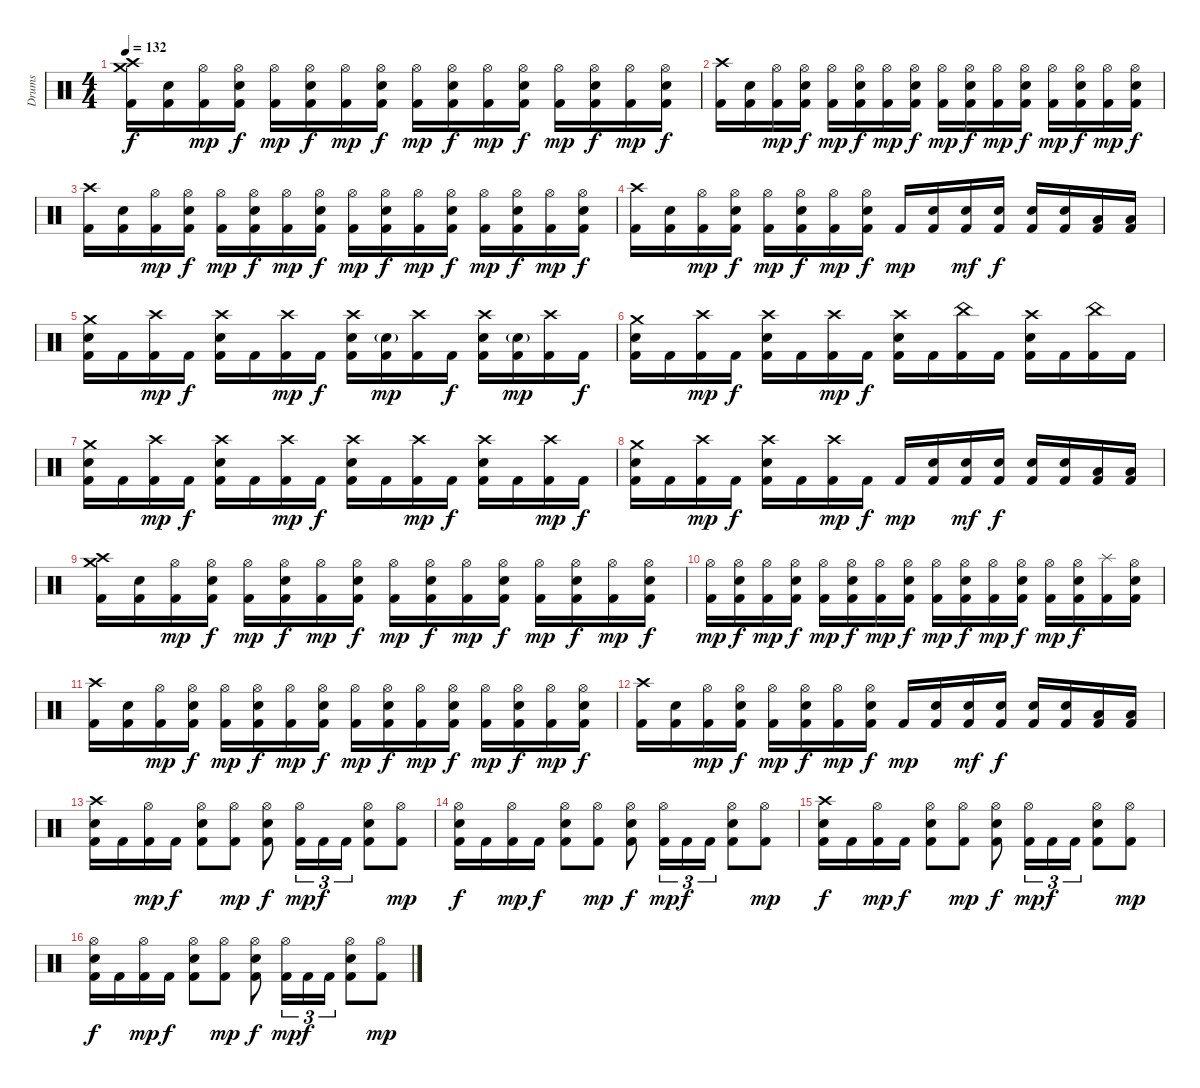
\track ("Drums" "Drums") {instrument percussion}
\staff {score}
\articulation defaults
\ts (4 4)
\tempo 132
\clef neutral
\ks c
("Crash high (hit)" "Crash medium (hit)" "Kick (hit) 2").16{dy f} ("Electric Snare (hit)" "Kick (hit) 2").16 ("Hi-Hat (open)" "Kick (hit) 2").16{dy mp} ("Hi-Hat (open)" "Electric Snare (hit)" "Kick (hit) 2").16{dy f} ("Hi-Hat (open)" "Kick (hit) 2").16{dy mp} ("Hi-Hat (open)" "Electric Snare (hit)" "Kick (hit) 2").16{dy f} ("Hi-Hat (open)" "Kick (hit) 2").16{dy mp} ("Hi-Hat (open)" "Electric Snare (hit)" "Kick (hit) 2").16{dy f} ("Hi-Hat (open)" "Kick (hit) 2").16{dy mp} ("Hi-Hat (open)" "Electric Snare (hit)" "Kick (hit) 2").16{dy f} ("Hi-Hat (open)" "Kick (hit) 2").16{dy mp} ("Hi-Hat (open)" "Electric Snare (hit)" "Kick (hit) 2").16{dy f} ("Hi-Hat (open)" "Kick (hit) 2").16{dy mp} ("Hi-Hat (open)" "Electric Snare (hit)" "Kick (hit) 2").16{dy f} ("Hi-Hat (open)" "Kick (hit) 2").16{dy mp} ("Hi-Hat (open)" "Electric Snare (hit)" "Kick (hit) 2").16{dy f} |
("Crash high (hit)" "Kick (hit) 2").16 ("Electric Snare (hit)" "Kick (hit) 2").16 ("Hi-Hat (open)" "Kick (hit) 2").16{dy mp} ("Hi-Hat (open)" "Electric Snare (hit)" "Kick (hit) 2").16{dy f} ("Hi-Hat (open)" "Kick (hit) 2").16{dy mp} ("Hi-Hat (open)" "Electric Snare (hit)" "Kick (hit) 2").16{dy f} ("Hi-Hat (open)" "Kick (hit) 2").16{dy mp} ("Hi-Hat (open)" "Electric Snare (hit)" "Kick (hit) 2").16{dy f} ("Hi-Hat (open)" "Kick (hit) 2").16{dy mp} ("Hi-Hat (open)" "Electric Snare (hit)" "Kick (hit) 2").16{dy f} ("Hi-Hat (open)" "Kick (hit) 2").16{dy mp} ("Hi-Hat (open)" "Electric Snare (hit)" "Kick (hit) 2").16{dy f} ("Hi-Hat (open)" "Kick (hit) 2").16{dy mp} ("Hi-Hat (open)" "Electric Snare (hit)" "Kick (hit) 2").16{dy f} ("Hi-Hat (open)" "Kick (hit) 2").16{dy mp} ("Hi-Hat (open)" "Electric Snare (hit)" "Kick (hit) 2").16{dy f} |
("Crash high (hit)" "Kick (hit) 2").16 ("Electric Snare (hit)" "Kick (hit) 2").16 ("Hi-Hat (open)" "Kick (hit) 2").16{dy mp} ("Hi-Hat (open)" "Electric Snare (hit)" "Kick (hit) 2").16{dy f} ("Hi-Hat (open)" "Kick (hit) 2").16{dy mp} ("Hi-Hat (open)" "Electric Snare (hit)" "Kick (hit) 2").16{dy f} ("Hi-Hat (open)" "Kick (hit) 2").16{dy mp} ("Hi-Hat (open)" "Electric Snare (hit)" "Kick (hit) 2").16{dy f} ("Hi-Hat (open)" "Kick (hit) 2").16{dy mp} ("Hi-Hat (open)" "Electric Snare (hit)" "Kick (hit) 2").16{dy f} ("Hi-Hat (open)" "Kick (hit) 2").16{dy mp} ("Hi-Hat (open)" "Electric Snare (hit)" "Kick (hit) 2").16{dy f} ("Hi-Hat (open)" "Kick (hit) 2").16{dy mp} ("Hi-Hat (open)" "Electric Snare (hit)" "Kick (hit) 2").16{dy f} ("Hi-Hat (open)" "Kick (hit) 2").16{dy mp} ("Hi-Hat (open)" "Electric Snare (hit)" "Kick (hit) 2").16{dy f} |
("Crash high (hit)" "Kick (hit) 2").16 ("Electric Snare (hit)" "Kick (hit) 2").16 ("Hi-Hat (open)" "Kick (hit) 2").16{dy mp} ("Hi-Hat (open)" "Electric Snare (hit)" "Kick (hit) 2").16{dy f} ("Hi-Hat (open)" "Kick (hit) 2").16{dy mp} ("Hi-Hat (open)" "Electric Snare (hit)" "Kick (hit) 2").16{dy f} ("Hi-Hat (open)" "Kick (hit) 2").16{dy mp} ("Hi-Hat (open)" "Electric Snare (hit)" "Kick (hit) 2").16{dy f} "Kick (hit) 2".16{dy mp} ("Electric Snare (hit)" "Kick (hit) 2").16 ("Electric Snare (hit)" "Kick (hit) 2").16{dy mf} ("Electric Snare (hit)" "Kick (hit) 2").16{dy f} ("Electric Snare (hit)" "Kick (hit) 2").16 ("Electric Snare (hit)" "Kick (hit) 2").16 ("Low Tom (hit)" "Kick (hit) 2").16 ("Low Tom (hit)" "Kick (hit) 2").16 |
("Crash medium (hit)" "Electric Snare (hit)" "Kick (hit) 2").16 "Kick (hit) 2".16 ("Crash high (hit)" "Kick (hit) 2").16{dy mp} "Kick (hit) 2".16{dy f} ("Crash high (hit)" "Electric Snare (hit)" "Kick (hit) 2").16 "Kick (hit) 2".16 ("Crash high (hit)" "Kick (hit) 2").16{dy mp} "Kick (hit) 2".16{dy f} ("Crash high (hit)" "Electric Snare (hit)" "Kick (hit) 2").16 ("Electric Snare (hit)"{g} "Kick (hit) 2").16{dy mp} ("Crash high (hit)" "Kick (hit) 2").16 "Kick (hit) 2".16{dy f} ("Crash high (hit)" "Electric Snare (hit)" "Kick (hit) 2").16 ("Electric Snare (hit)"{g} "Kick (hit) 2").16{dy mp} ("Crash high (hit)" "Kick (hit) 2").16 "Kick (hit) 2".16{dy f} |
("Crash medium (hit)" "Electric Snare (hit)" "Kick (hit) 2").16 "Kick (hit) 2".16 ("Crash high (hit)" "Kick (hit) 2").16{dy mp} "Kick (hit) 2".16{dy f} ("Crash high (hit)" "Electric Snare (hit)" "Kick (hit) 2").16 "Kick (hit) 2".16 ("Crash high (hit)" "Kick (hit) 2").16{dy mp} "Kick (hit) 2".16{dy f} ("Crash high (hit)" "Electric Snare (hit)" "Kick (hit) 2").16 "Kick (hit) 2".16 ("China (hit)" "Kick (hit) 2").16 "Kick (hit) 2".16 ("Crash high (hit)" "Electric Snare (hit)" "Kick (hit) 2").16 "Kick (hit) 2".16 ("China (hit)" "Kick (hit) 2").16 "Kick (hit) 2".16 |
("Crash medium (hit)" "Electric Snare (hit)" "Kick (hit) 2").16 "Kick (hit) 2".16 ("Crash high (hit)" "Kick (hit) 2").16{dy mp} "Kick (hit) 2".16{dy f} ("Crash high (hit)" "Electric Snare (hit)" "Kick (hit) 2").16 "Kick (hit) 2".16 ("Crash high (hit)" "Kick (hit) 2").16{dy mp} "Kick (hit) 2".16{dy f} ("Crash high (hit)" "Electric Snare (hit)" "Kick (hit) 2").16 "Kick (hit) 2".16 ("Crash high (hit)" "Kick (hit) 2").16{dy mp} "Kick (hit) 2".16{dy f} ("Crash high (hit)" "Electric Snare (hit)" "Kick (hit) 2").16 "Kick (hit) 2".16 ("Crash high (hit)" "Kick (hit) 2").16{dy mp} "Kick (hit) 2".16{dy f} |
("Crash medium (hit)" "Electric Snare (hit)" "Kick (hit) 2").16 "Kick (hit) 2".16 ("Crash high (hit)" "Kick (hit) 2").16{dy mp} "Kick (hit) 2".16{dy f} ("Crash high (hit)" "Electric Snare (hit)" "Kick (hit) 2").16 "Kick (hit) 2".16 ("Crash high (hit)" "Kick (hit) 2").16{dy mp} "Kick (hit) 2".16{dy f} "Kick (hit) 2".16{dy mp} ("Electric Snare (hit)" "Kick (hit) 2").16 ("Electric Snare (hit)" "Kick (hit) 2").16{dy mf} ("Electric Snare (hit)" "Kick (hit) 2").16{dy f} ("Electric Snare (hit)" "Kick (hit) 2").16 ("Electric Snare (hit)" "Kick (hit) 2").16 ("Low Tom (hit)" "Kick (hit) 2").16 ("Low Tom (hit)" "Kick (hit) 2").16 |
("Crash high (hit)" "Crash medium (hit)" "Kick (hit) 2").16 ("Electric Snare (hit)" "Kick (hit) 2").16 ("Hi-Hat (open)" "Kick (hit) 2").16{dy mp} ("Hi-Hat (open)" "Electric Snare (hit)" "Kick (hit) 2").16{dy f} ("Hi-Hat (open)" "Kick (hit) 2").16{dy mp} ("Hi-Hat (open)" "Electric Snare (hit)" "Kick (hit) 2").16{dy f} ("Hi-Hat (open)" "Kick (hit) 2").16{dy mp} ("Hi-Hat (open)" "Electric Snare (hit)" "Kick (hit) 2").16{dy f} ("Hi-Hat (open)" "Kick (hit) 2").16{dy mp} ("Hi-Hat (open)" "Electric Snare (hit)" "Kick (hit) 2").16{dy f} ("Hi-Hat (open)" "Kick (hit) 2").16{dy mp} ("Hi-Hat (open)" "Electric Snare (hit)" "Kick (hit) 2").16{dy f} ("Hi-Hat (open)" "Kick (hit) 2").16{dy mp} ("Hi-Hat (open)" "Electric Snare (hit)" "Kick (hit) 2").16{dy f} ("Hi-Hat (open)" "Kick (hit) 2").16{dy mp} ("Hi-Hat (open)" "Electric Snare (hit)" "Kick (hit) 2").16{dy f} |
("Hi-Hat (open)" "Kick (hit) 2").16{dy mp} ("Hi-Hat (open)" "Electric Snare (hit)" "Kick (hit) 2").16{dy f} ("Hi-Hat (open)" "Kick (hit) 2").16{dy mp} ("Hi-Hat (open)" "Electric Snare (hit)" "Kick (hit) 2").16{dy f} ("Hi-Hat (open)" "Kick (hit) 2").16{dy mp} ("Hi-Hat (open)" "Electric Snare (hit)" "Kick (hit) 2").16{dy f} ("Hi-Hat (open)" "Kick (hit) 2").16{dy mp} ("Hi-Hat (open)" "Electric Snare (hit)" "Kick (hit) 2").16{dy f} ("Hi-Hat (open)" "Kick (hit) 2").16{dy mp} ("Hi-Hat (open)" "Electric Snare (hit)" "Kick (hit) 2").16{dy f} ("Hi-Hat (open)" "Kick (hit) 2").16{dy mp} ("Hi-Hat (open)" "Electric Snare (hit)" "Kick (hit) 2").16{dy f} ("Hi-Hat (open)" "Kick (hit) 2").16{dy mp} ("Hi-Hat (open)" "Electric Snare (hit)" "Kick (hit) 2").16{dy f} ("Splash (hit)" "Kick (hit) 2").16 ("Hi-Hat (open)" "Electric Snare (hit)" "Kick (hit) 2").16 |
("Crash high (hit)" "Kick (hit) 2").16 ("Electric Snare (hit)" "Kick (hit) 2").16 ("Hi-Hat (open)" "Kick (hit) 2").16{dy mp} ("Hi-Hat (open)" "Electric Snare (hit)" "Kick (hit) 2").16{dy f} ("Hi-Hat (open)" "Kick (hit) 2").16{dy mp} ("Hi-Hat (open)" "Electric Snare (hit)" "Kick (hit) 2").16{dy f} ("Hi-Hat (open)" "Kick (hit) 2").16{dy mp} ("Hi-Hat (open)" "Electric Snare (hit)" "Kick (hit) 2").16{dy f} ("Hi-Hat (open)" "Kick (hit) 2").16{dy mp} ("Hi-Hat (open)" "Electric Snare (hit)" "Kick (hit) 2").16{dy f} ("Hi-Hat (open)" "Kick (hit) 2").16{dy mp} ("Hi-Hat (open)" "Electric Snare (hit)" "Kick (hit) 2").16{dy f} ("Hi-Hat (open)" "Kick (hit) 2").16{dy mp} ("Hi-Hat (open)" "Electric Snare (hit)" "Kick (hit) 2").16{dy f} ("Hi-Hat (open)" "Kick (hit) 2").16{dy mp} ("Hi-Hat (open)" "Electric Snare (hit)" "Kick (hit) 2").16{dy f} |
("Crash high (hit)" "Kick (hit) 2").16 ("Electric Snare (hit)" "Kick (hit) 2").16 ("Hi-Hat (open)" "Kick (hit) 2").16{dy mp} ("Hi-Hat (open)" "Electric Snare (hit)" "Kick (hit) 2").16{dy f} ("Hi-Hat (open)" "Kick (hit) 2").16{dy mp} ("Hi-Hat (open)" "Electric Snare (hit)" "Kick (hit) 2").16{dy f} ("Hi-Hat (open)" "Kick (hit) 2").16{dy mp} ("Hi-Hat (open)" "Electric Snare (hit)" "Kick (hit) 2").16{dy f} "Kick (hit) 2".16{dy mp} ("Electric Snare (hit)" "Kick (hit) 2").16 ("Electric Snare (hit)" "Kick (hit) 2").16{dy mf} ("Electric Snare (hit)" "Kick (hit) 2").16{dy f} ("Electric Snare (hit)" "Kick (hit) 2").16 ("Electric Snare (hit)" "Kick (hit) 2").16 ("Low Tom (hit)" "Kick (hit) 2").16 ("Low Tom (hit)" "Kick (hit) 2").16 |
("Crash high (hit)" "Electric Snare (hit)" "Kick (hit) 2").16 "Kick (hit) 2".16 ("Hi-Hat (open)" "Kick (hit) 2").16{dy mp} "Kick (hit) 2".16{dy f} ("Hi-Hat (open)" "Electric Snare (hit)" "Kick (hit) 2").8 ("Hi-Hat (open)" "Kick (hit) 2").8{dy mp} ("Hi-Hat (open)" "Electric Snare (hit)" "Kick (hit) 2").8{dy f} ("Hi-Hat (open)" "Kick (hit) 2").16{tu (3 2) dy mp} "Kick (hit) 2".16{tu (3 2) dy f} "Kick (hit) 2".16{tu (3 2)} ("Hi-Hat (open)" "Electric Snare (hit)" "Kick (hit) 2").8 ("Hi-Hat (open)" "Kick (hit) 2").8{dy mp} |
("Hi-Hat (open)" "Electric Snare (hit)" "Kick (hit) 2").16{dy f} "Kick (hit) 2".16 ("Hi-Hat (open)" "Kick (hit) 2").16{dy mp} "Kick (hit) 2".16{dy f} ("Hi-Hat (open)" "Electric Snare (hit)" "Kick (hit) 2").8 ("Hi-Hat (open)" "Kick (hit) 2").8{dy mp} ("Hi-Hat (open)" "Electric Snare (hit)" "Kick (hit) 2").8{dy f} ("Hi-Hat (open)" "Kick (hit) 2").16{tu (3 2) dy mp} "Kick (hit) 2".16{tu (3 2) dy f} "Kick (hit) 2".16{tu (3 2)} ("Hi-Hat (open)" "Electric Snare (hit)" "Kick (hit) 2").8 ("Hi-Hat (open)" "Kick (hit) 2").8{dy mp} |
("Crash high (hit)" "Electric Snare (hit)" "Kick (hit) 2").16{dy f} "Kick (hit) 2".16 ("Hi-Hat (open)" "Kick (hit) 2").16{dy mp} "Kick (hit) 2".16{dy f} ("Hi-Hat (open)" "Electric Snare (hit)" "Kick (hit) 2").8 ("Hi-Hat (open)" "Kick (hit) 2").8{dy mp} ("Hi-Hat (open)" "Electric Snare (hit)" "Kick (hit) 2").8{dy f} ("Hi-Hat (open)" "Kick (hit) 2").16{tu (3 2) dy mp} "Kick (hit) 2".16{tu (3 2) dy f} "Kick (hit) 2".16{tu (3 2)} ("Hi-Hat (open)" "Electric Snare (hit)" "Kick (hit) 2").8 ("Hi-Hat (open)" "Kick (hit) 2").8{dy mp} |
("Hi-Hat (open)" "Electric Snare (hit)" "Kick (hit) 2").16{dy f} "Kick (hit) 2".16 ("Hi-Hat (open)" "Kick (hit) 2").16{dy mp} "Kick (hit) 2".16{dy f} ("Hi-Hat (open)" "Electric Snare (hit)" "Kick (hit) 2").8 ("Hi-Hat (open)" "Kick (hit) 2").8{dy mp} ("Hi-Hat (open)" "Electric Snare (hit)" "Kick (hit) 2").8{dy f} ("Hi-Hat (open)" "Kick (hit) 2").16{tu (3 2) dy mp} "Kick (hit) 2".16{tu (3 2) dy f} "Kick (hit) 2".16{tu (3 2)} ("Hi-Hat (open)" "Electric Snare (hit)" "Kick (hit) 2").8 ("Hi-Hat (open)" "Kick (hit) 2").8{dy mp}
